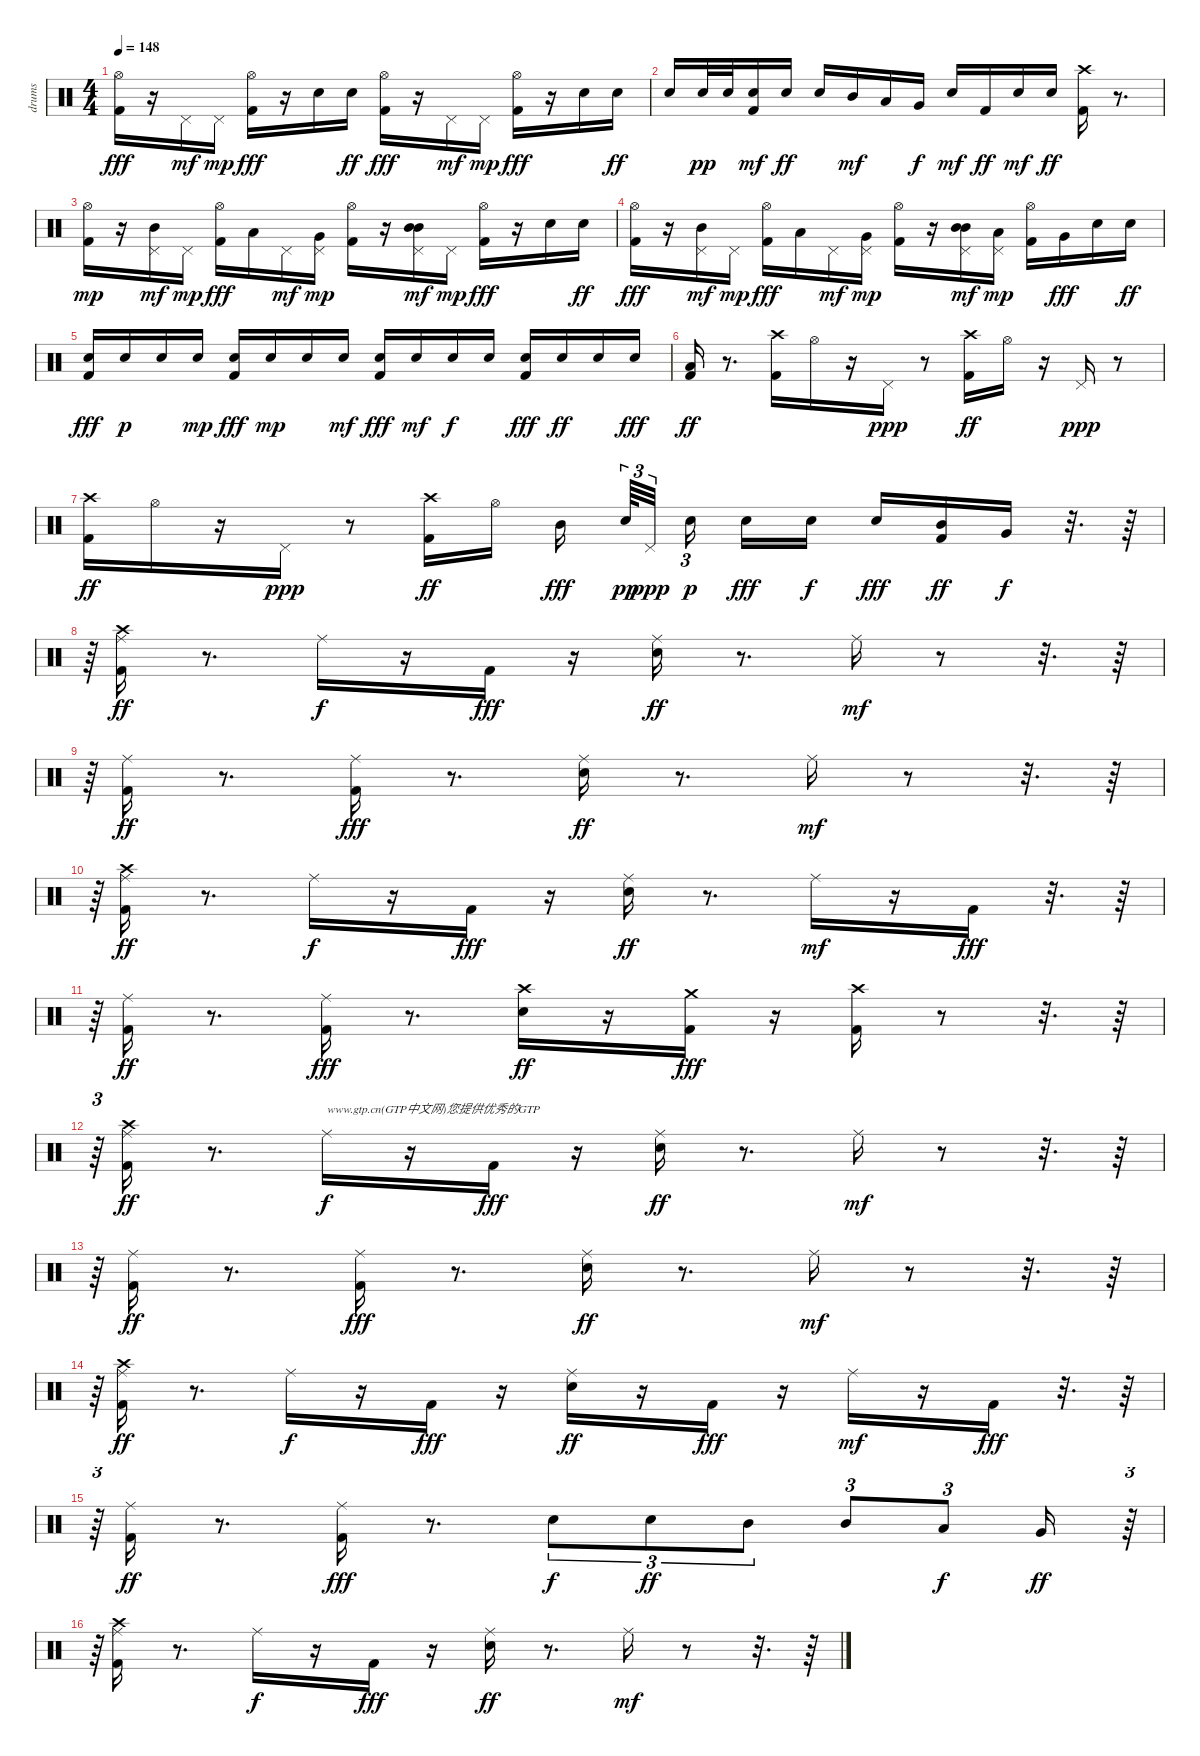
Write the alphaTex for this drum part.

\track ("drums" "drums") {instrument percussion}
\staff {score}
\articulation defaults
\ts (4 4)
\tempo 148
\clef neutral
\ks c
("Hi-Hat (open)" "Kick (hit) 2").16{dy fff} r.16 "Pedal Hi-Hat (hit)".16{dy mf} "Pedal Hi-Hat (hit)".16{dy mp} ("Hi-Hat (open)" "Kick (hit) 2").16{dy fff} r.16 "Electric Snare (hit)".16 "Electric Snare (hit)".16{dy ff} ("Hi-Hat (open)" "Kick (hit) 2").16{dy fff} r.16 "Pedal Hi-Hat (hit)".16{dy mf} "Pedal Hi-Hat (hit)".16{dy mp} ("Hi-Hat (open)" "Kick (hit) 2").16{dy fff} r.16 "Electric Snare (hit)".16 "Electric Snare (hit)".16{dy ff} |
"Electric Snare (hit)".16 "Snare (hit) 2".32{dy pp} "Snare (hit) 2".32 ("Kick (hit) 2" "Electric Snare (hit)").16{dy mf} "Electric Snare (hit)".16{dy ff} "Electric Snare (hit)".16 "Mid Tom (hit)".16{dy mf} "Low Tom (hit)".16 "Very Low Tom (hit)".16{dy f} "Snare (hit) 2".16{dy mf} "Kick (hit) 2".16{dy ff} "Electric Snare (hit)".16{dy mf} "Electric Snare (hit)".16{dy ff} ("Kick (hit) 2" "Crash high (hit)").16 r.8{d} |
("Kick (hit) 2" "Hi-Hat (open)").16{dy mp} r.16 ("Mid Tom (hit)" "Pedal Hi-Hat (hit)").16{dy mf} "Pedal Hi-Hat (hit)".16{dy mp} ("Hi-Hat (open)" "Kick (hit) 2").16{dy fff} "Low Tom (hit)".16 "Pedal Hi-Hat (hit)".16{dy mf} ("Very Low Tom (hit)" "Pedal Hi-Hat (hit)").16{dy mp} ("Kick (hit) 2" "Hi-Hat (open)").16 r.16 ("Mid Tom (hit)" "Mid Tom (hit)" "Pedal Hi-Hat (hit)").16{dy mf} "Pedal Hi-Hat (hit)".16{dy mp} ("Hi-Hat (open)" "Kick (hit) 2").16{dy fff} r.16 "Electric Snare (hit)".16 "Electric Snare (hit)".16{dy ff} |
("Hi-Hat (open)" "Kick (hit) 2").16{dy fff} r.16 ("Mid Tom (hit)" "Pedal Hi-Hat (hit)").16{dy mf} "Pedal Hi-Hat (hit)".16{dy mp} ("Hi-Hat (open)" "Kick (hit) 2").16{dy fff} "Low Tom (hit)".16 "Pedal Hi-Hat (hit)".16{dy mf} ("Very Low Tom (hit)" "Pedal Hi-Hat (hit)").16{dy mp} ("Kick (hit) 2" "Hi-Hat (open)").16 r.16 ("Mid Tom (hit)" "Mid Tom (hit)" "Pedal Hi-Hat (hit)").16{dy mf} ("Low Tom (hit)" "Pedal Hi-Hat (hit)").16{dy mp} ("Kick (hit) 2" "Hi-Hat (open)").16 "Very Low Tom (hit)".16{dy fff} "Electric Snare (hit)".16 "Electric Snare (hit)".16{dy ff} |
("Snare (hit) 2" "Kick (hit) 2").16{dy fff} "Snare (hit) 2".16{dy p} "Snare (hit) 2".16 "Snare (hit) 2".16{dy mp} ("Snare (hit) 2" "Kick (hit) 2").16{dy fff} "Snare (hit) 2".16{dy mp} "Snare (hit) 2".16 "Snare (hit) 2".16{dy mf} ("Snare (hit) 2" "Kick (hit) 2").16{dy fff} "Snare (hit) 2".16{dy mf} "Snare (hit) 2".16{dy f} "Snare (hit) 2".16 ("Snare (hit) 2" "Kick (hit) 2").16{dy fff} "Snare (hit) 2".16{dy ff} "Snare (hit) 2".16 "Snare (hit) 2".16{dy fff} |
("Kick (hit) 2" "Low Floor Tom (hit)").16{dy ff} r.8{d} ("Crash high (hit)" "Kick (hit) 2").16 "Hi-Hat (open)".16 r.16 "Pedal Hi-Hat (hit)".16{dy ppp} r.8 ("Crash high (hit)" "Kick (hit) 2").16{dy ff} "Hi-Hat (open)".16 r.16 "Pedal Hi-Hat (hit)".16{dy ppp} r.8 |
("Crash high (hit)" "Kick (hit) 2").16{dy ff} "Hi-Hat (open)".16 r.16 "Pedal Hi-Hat (hit)".16{dy ppp} r.8 ("Crash high (hit)" "Kick (hit) 2").16{dy ff} "Hi-Hat (open)".16 "Mid Tom (hit)".16{dy fff beam splitsecondary} "Snare (hit) 2".64{tu (3 2) dy pp} "Pedal Hi-Hat (hit)".32{tu (3 2) dy ppp beam splitsecondary} "Snare (hit) 2".16{tu (3 2) dy p beam splitsecondary} "Snare (hit) 2".16{dy fff} "Electric Snare (hit)".16{dy f} "Electric Snare (hit)".16{dy fff} ("Kick (hit) 2" "Mid Tom (hit)").16{dy ff} "Very Low Tom (hit)".16{dy f} r.32{d} r.64 |
r.64{tu (3 2)} ("Crash high (hit)" "Kick (hit) 2" "Ride (middle)").16{dy ff} r.8{d} "Ride (middle)".16{dy f} r.16 "Kick (hit) 2".16{dy fff} r.16 ("Electric Snare (hit)" "Ride (middle)").16{dy ff} r.8{d} "Ride (middle)".16{dy mf} r.8 r.32{d} r.64 |
r.64{tu (3 2)} ("Kick (hit) 2" "Ride (middle)").16{dy ff} r.8{d} ("Kick (hit) 2" "Ride (middle)").16{dy fff} r.8{d} ("Electric Snare (hit)" "Ride (middle)").16{dy ff} r.8{d} "Ride (middle)".16{dy mf} r.8 r.32{d} r.64 |
r.64{tu (3 2)} ("Crash high (hit)" "Kick (hit) 2" "Ride (middle)").16{dy ff} r.8{d} "Ride (middle)".16{dy f} r.16 "Kick (hit) 2".16{dy fff} r.16 ("Electric Snare (hit)" "Ride (middle)").16{dy ff} r.8{d} "Ride (middle)".16{dy mf} r.16 "Kick (hit) 2".16{dy fff} r.32{d} r.64 |
r.64{tu (3 2)} ("Kick (hit) 2" "Ride (middle)").16{dy ff} r.8{d} ("Kick (hit) 2" "Ride (middle)").16{dy fff} r.8{d} ("Crash high (hit)" "Electric Snare (hit)").16{dy ff} r.16 ("Kick (hit) 2" "Crash medium (hit)").16{dy fff} r.16 ("Crash high (hit)" "Kick (hit) 2").16 r.8 r.32{d} r.64 |
r.64{tu (3 2)} ("Crash high (hit)" "Kick (hit) 2" "Ride (middle)").16{dy ff} r.8{d} "Ride (middle)".16{txt "www.gtp.cn(GTP中文网)您提供优秀的GTP" dy f} r.16 "Kick (hit) 2".16{dy fff} r.16 ("Electric Snare (hit)" "Ride (middle)").16{dy ff} r.8{d} "Ride (middle)".16{dy mf} r.8 r.32{d} r.64 |
r.64{tu (3 2)} ("Kick (hit) 2" "Ride (middle)").16{dy ff} r.8{d} ("Kick (hit) 2" "Ride (middle)").16{dy fff} r.8{d} ("Electric Snare (hit)" "Ride (middle)").16{dy ff} r.8{d} "Ride (middle)".16{dy mf} r.8 r.32{d} r.64 |
r.64{tu (3 2)} ("Crash high (hit)" "Kick (hit) 2" "Ride (middle)").16{dy ff} r.8{d} "Ride (middle)".16{dy f} r.16 "Kick (hit) 2".16{dy fff} r.16 ("Electric Snare (hit)" "Ride (middle)").16{dy ff} r.16 "Kick (hit) 2".16{dy fff} r.16 "Ride (middle)".16{dy mf} r.16 "Kick (hit) 2".16{dy fff} r.32{d} r.64 |
r.64{tu (3 2)} ("Kick (hit) 2" "Ride (middle)").16{dy ff} r.8{d} ("Kick (hit) 2" "Ride (middle)").16{dy fff} r.8{d} "Electric Snare (hit)".8{tu (3 2) dy f} "Electric Snare (hit)".8{tu (3 2) dy ff} "Mid Tom (hit)".8{tu (3 2)} "Mid Tom (hit)".8{tu (3 2)} "Low Tom (hit)".8{tu (3 2) dy f} "Very Low Tom (hit)".16{dy ff} r.64{tu (3 2)} |
r.64{tu (3 2)} ("Crash high (hit)" "Kick (hit) 2" "Ride (middle)").16 r.8{d} "Ride (middle)".16{dy f} r.16 "Kick (hit) 2".16{dy fff} r.16 ("Electric Snare (hit)" "Ride (middle)").16{dy ff} r.8{d} "Ride (middle)".16{dy mf} r.8 r.32{d} r.64
